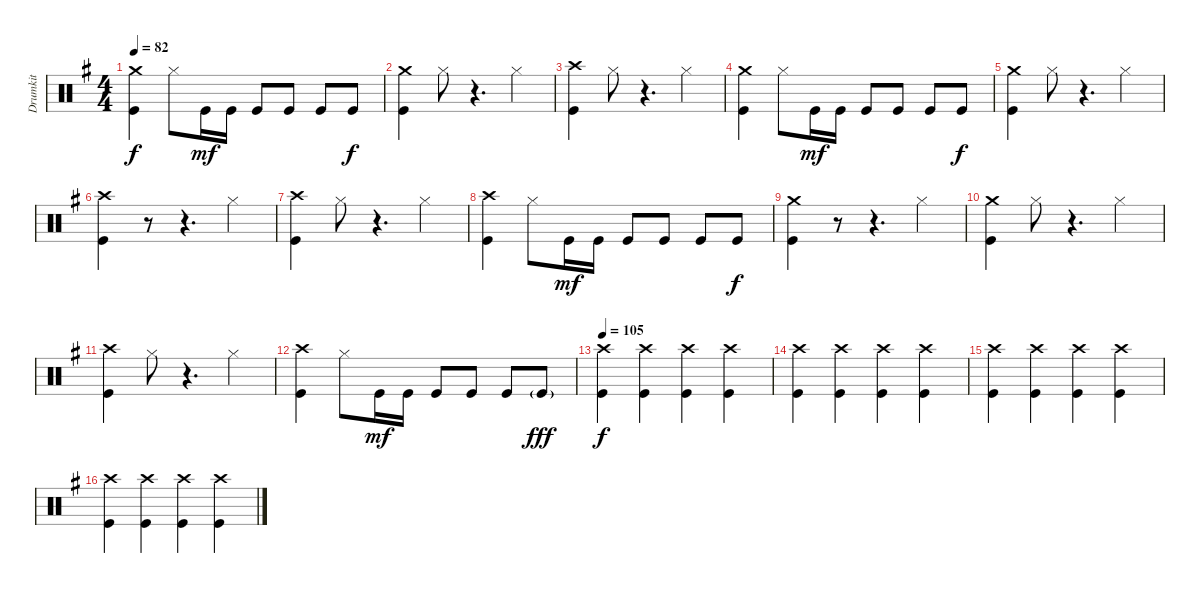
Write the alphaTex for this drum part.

\track ("Drumkit" "Drumkit") {instrument percussion}
\staff {score}
\articulation defaults
\ts (4 4)
\tempo 82
\clef neutral
\ks g
("Kick (hit)" "Crash medium (hit)").4{dy f} "Hi-Hat (closed)".8 "Kick (hit)".16{dy mf} "Kick (hit)".16 "Kick (hit)".8 "Kick (hit)".8 "Kick (hit)".8 "Kick (hit)".8{dy f} |
("Kick (hit)" "Crash medium (hit)").4 "Hi-Hat (closed)".8 r.4{d} "Hi-Hat (closed)".4 |
("Kick (hit)" "Crash high (hit)").4 "Hi-Hat (closed)".8 r.4{d} "Hi-Hat (closed)".4 |
("Kick (hit)" "Crash medium (hit)").4 "Hi-Hat (closed)".8 "Kick (hit)".16{dy mf} "Kick (hit)".16 "Kick (hit)".8 "Kick (hit)".8 "Kick (hit)".8 "Kick (hit)".8{dy f} |
("Kick (hit)" "Crash medium (hit)").4 "Hi-Hat (closed)".8 r.4{d} "Hi-Hat (closed)".4 |
("Kick (hit)" "Crash high (hit)").4 r.8 r.4{d} "Hi-Hat (closed)".4 |
("Kick (hit)" "Crash high (hit)").4 "Hi-Hat (closed)".8 r.4{d} "Hi-Hat (closed)".4 |
("Kick (hit)" "Crash high (hit)").4 "Hi-Hat (closed)".8 "Kick (hit)".16{dy mf} "Kick (hit)".16 "Kick (hit)".8 "Kick (hit)".8 "Kick (hit)".8 "Kick (hit)".8{dy f} |
("Kick (hit)" "Crash medium (hit)").4 r.8 r.4{d} "Hi-Hat (closed)".4 |
("Kick (hit)" "Crash medium (hit)").4 "Hi-Hat (closed)".8 r.4{d} "Hi-Hat (closed)".4 |
("Kick (hit)" "Crash high (hit)").4 "Hi-Hat (closed)".8 r.4{d} "Hi-Hat (closed)".4 |
("Kick (hit)" "Crash high (hit)").4 "Hi-Hat (closed)".8 "Kick (hit)".16{dy mf} "Kick (hit)".16 "Kick (hit)".8 "Kick (hit)".8 "Kick (hit)".8 "Kick (hit)"{g}.8{dy fff} |
\tempo 105
("Kick (hit)" "Crash high (hit)").4{dy f} ("Kick (hit)" "Crash high (hit)").4 ("Kick (hit)" "Crash high (hit)").4 ("Kick (hit)" "Crash high (hit)").4 |
("Kick (hit)" "Crash high (hit)").4 ("Kick (hit)" "Crash high (hit)").4 ("Kick (hit)" "Crash high (hit)").4 ("Kick (hit)" "Crash high (hit)").4 |
("Kick (hit)" "Crash high (hit)").4 ("Kick (hit)" "Crash high (hit)").4 ("Kick (hit)" "Crash high (hit)").4 ("Kick (hit)" "Crash high (hit)").4 |
("Kick (hit)" "Crash high (hit)").4 ("Kick (hit)" "Crash high (hit)").4 ("Kick (hit)" "Crash high (hit)").4 ("Kick (hit)" "Crash high (hit)").4
